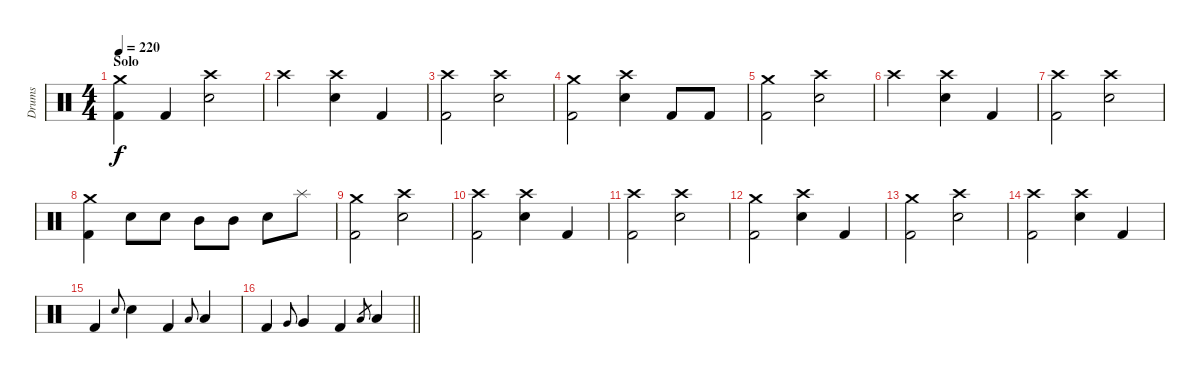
\track ("Drums" "Drums") {instrument percussion}
\staff {score}
\articulation defaults
\ts (4 4)
\section ("" "Solo")
\tempo 220
\clef neutral
\ks c
("Crash medium (hit)" "Kick (hit) 2").4{dy f} "Kick (hit) 2".4 ("Crash high (hit)" "Electric Snare (hit)").2 |
"Crash high (hit)".2 ("Crash high (hit)" "Electric Snare (hit)").4 "Kick (hit) 2".4 |
("Kick (hit) 2" "Crash high (hit)").2 ("Electric Snare (hit)" "Crash high (hit)").2 |
("Crash medium (hit)" "Kick (hit) 2").2 ("Crash high (hit)" "Electric Snare (hit)").4 "Kick (hit) 2".8 "Kick (hit) 2".8 |
("Crash medium (hit)" "Kick (hit) 2").2 ("Crash high (hit)" "Electric Snare (hit)").2 |
"Crash high (hit)".2 ("Crash high (hit)" "Electric Snare (hit)").4 "Kick (hit) 2".4 |
("Kick (hit) 2" "Crash high (hit)").2 ("Electric Snare (hit)" "Crash high (hit)").2 |
("Kick (hit) 2" "Crash medium (hit)").4 "Electric Snare (hit)".8 "Electric Snare (hit)".8 "Mid Tom (hit)".8 "Mid Tom (hit)".8 "Electric Snare (hit)".8 "Splash (hit)".8 |
("Crash medium (hit)" "Kick (hit) 2").2 ("Crash high (hit)" "Electric Snare (hit)").2 |
("Kick (hit) 2" "Crash high (hit)").2 ("Crash high (hit)" "Electric Snare (hit)").4 "Kick (hit) 2".4 |
("Kick (hit) 2" "Crash high (hit)").2 ("Electric Snare (hit)" "Crash high (hit)").2 |
("Crash medium (hit)" "Kick (hit) 2").2 ("Crash high (hit)" "Electric Snare (hit)").4 "Kick (hit) 2".4 |
("Crash medium (hit)" "Kick (hit) 2").2 ("Crash high (hit)" "Electric Snare (hit)").2 |
("Kick (hit) 2" "Crash high (hit)").2 ("Crash high (hit)" "Electric Snare (hit)").4 "Kick (hit) 2".4 |
"Kick (hit) 2".4 "Electric Snare (hit)".8{gr onbeat} "Electric Snare (hit)".4 "Kick (hit) 2".4 "Low Tom (hit)".8{gr onbeat} "Low Tom (hit)".4 |
\barLineRight lightlight "Kick (hit) 2".4 "Very Low Tom (hit)".8{gr onbeat} "Very Low Tom (hit)".4 "Kick (hit) 2".4 "Low Floor Tom (hit)".8{gr} "Low Floor Tom (hit)".4
